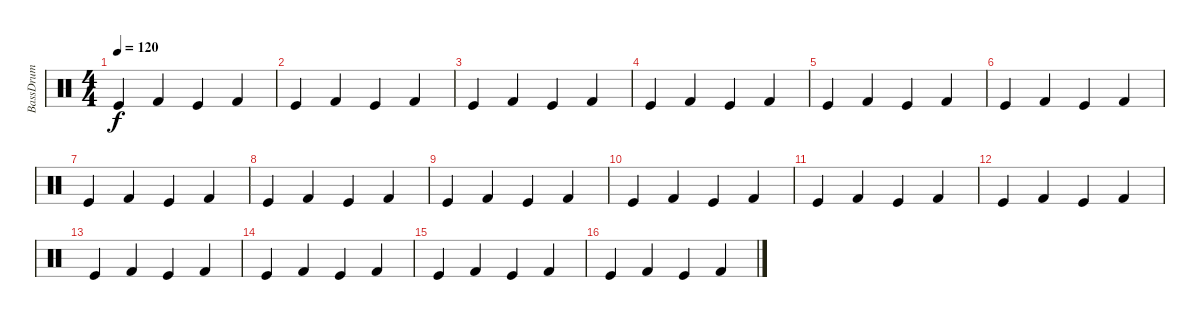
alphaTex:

\track ("BassDrum" "BassDrum") {instrument percussion}
\staff {score}
\articulation defaults
\ts (4 4)
\tempo 120
\clef neutral
\ks c "Kick (hit)".4{dy f} "Kick (hit) 2".4 "Kick (hit)".4 "Kick (hit) 2".4
|
"Kick (hit)".4 "Kick (hit) 2".4 "Kick (hit)".4 "Kick (hit) 2".4 |
"Kick (hit)".4 "Kick (hit) 2".4 "Kick (hit)".4 "Kick (hit) 2".4 |
"Kick (hit)".4 "Kick (hit) 2".4 "Kick (hit)".4 "Kick (hit) 2".4 |
"Kick (hit)".4 "Kick (hit) 2".4 "Kick (hit)".4 "Kick (hit) 2".4 |
"Kick (hit)".4 "Kick (hit) 2".4 "Kick (hit)".4 "Kick (hit) 2".4 |
"Kick (hit)".4 "Kick (hit) 2".4 "Kick (hit)".4 "Kick (hit) 2".4 |
"Kick (hit)".4 "Kick (hit) 2".4 "Kick (hit)".4 "Kick (hit) 2".4 |
"Kick (hit)".4 "Kick (hit) 2".4 "Kick (hit)".4 "Kick (hit) 2".4 |
"Kick (hit)".4 "Kick (hit) 2".4 "Kick (hit)".4 "Kick (hit) 2".4 |
"Kick (hit)".4 "Kick (hit) 2".4 "Kick (hit)".4 "Kick (hit) 2".4 |
"Kick (hit)".4 "Kick (hit) 2".4 "Kick (hit)".4 "Kick (hit) 2".4 |
"Kick (hit)".4 "Kick (hit) 2".4 "Kick (hit)".4 "Kick (hit) 2".4 |
"Kick (hit)".4 "Kick (hit) 2".4 "Kick (hit)".4 "Kick (hit) 2".4 |
"Kick (hit)".4 "Kick (hit) 2".4 "Kick (hit)".4 "Kick (hit) 2".4 |
"Kick (hit)".4 "Kick (hit) 2".4 "Kick (hit)".4 "Kick (hit) 2".4
